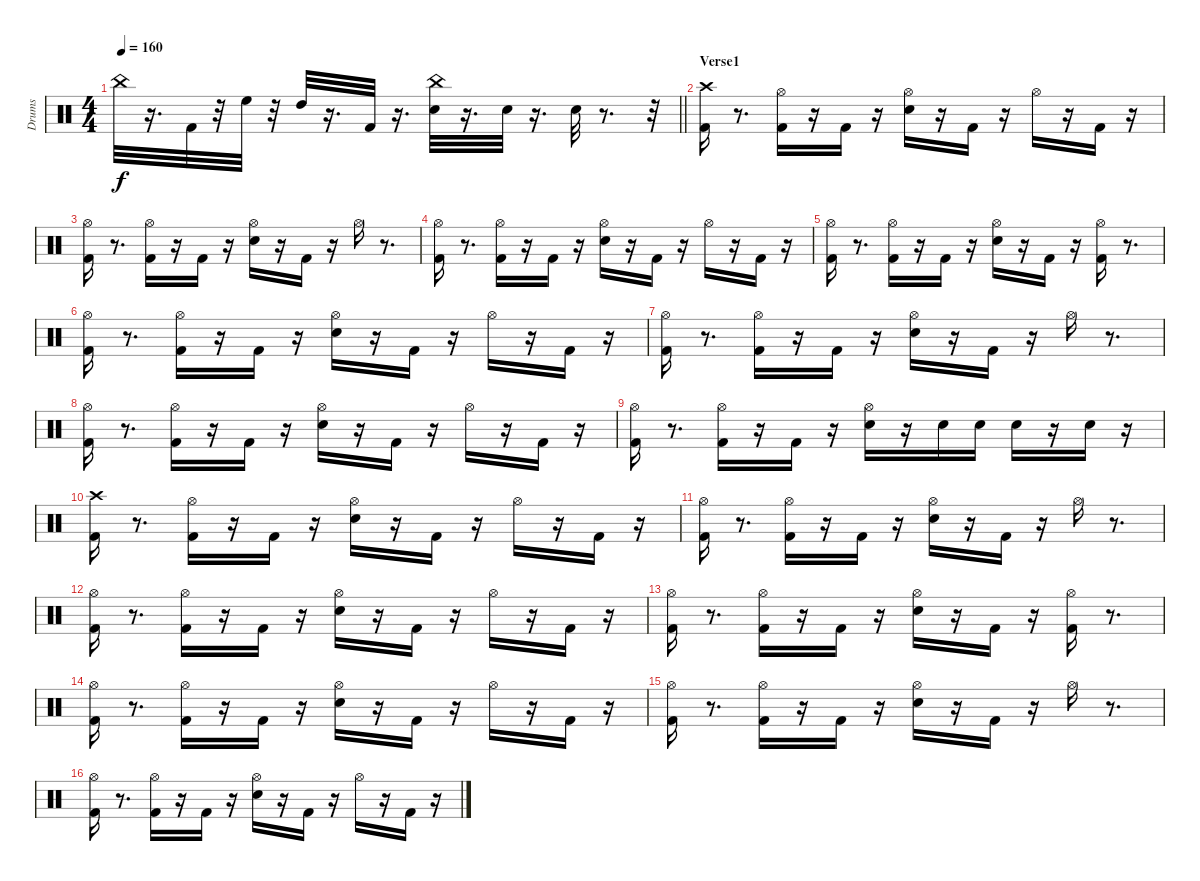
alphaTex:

\track ("Drums" "Drums") {instrument percussion}
\staff {score}
\articulation defaults
\ts (4 4)
\tempo 160
\clef neutral
\barLineRight lightlight
\ks c "China (hit)".32{dy f}
r.16{d} "Kick (hit) 2".32 r.32 "High Floor Tom (hit)".32 r.32 "High Tom (hit)".32 r.16{d} "Kick (hit) 2".32 r.16{d} ("Snare (hit) 2" "China (hit)").32 r.16{d} "Snare (hit) 2".32 r.16{d} "Snare (hit) 2".32 r.8{d} r.32 |
\section ("" "Verse1")
("Kick (hit) 2" "Crash high (hit)").16 r.8{d} ("Kick (hit) 2" "Hi-Hat (open)").16 r.16 "Kick (hit) 2".16 r.16 ("Snare (hit) 2" "Hi-Hat (open)").16 r.16 "Kick (hit) 2".16 r.16 "Hi-Hat (open)".16 r.16 "Kick (hit) 2".16 r.16 |
("Kick (hit) 2" "Hi-Hat (open)").16 r.8{d} ("Kick (hit) 2" "Hi-Hat (open)").16 r.16 "Kick (hit) 2".16 r.16 ("Snare (hit) 2" "Hi-Hat (open)").16 r.16 "Kick (hit) 2".16 r.16 "Hi-Hat (open)".16 r.8{d} |
("Kick (hit) 2" "Hi-Hat (open)").16 r.8{d} ("Kick (hit) 2" "Hi-Hat (open)").16 r.16 "Kick (hit) 2".16 r.16 ("Snare (hit) 2" "Hi-Hat (open)").16 r.16 "Kick (hit) 2".16 r.16 "Hi-Hat (open)".16 r.16 "Kick (hit) 2".16 r.16 |
("Kick (hit) 2" "Hi-Hat (open)").16 r.8{d} ("Kick (hit) 2" "Hi-Hat (open)").16 r.16 "Kick (hit) 2".16 r.16 ("Snare (hit) 2" "Hi-Hat (open)").16 r.16 "Kick (hit) 2".16 r.16 ("Kick (hit) 2" "Hi-Hat (open)").16 r.8{d} |
("Kick (hit) 2" "Hi-Hat (open)").16 r.8{d} ("Kick (hit) 2" "Hi-Hat (open)").16 r.16 "Kick (hit) 2".16 r.16 ("Snare (hit) 2" "Hi-Hat (open)").16 r.16 "Kick (hit) 2".16 r.16 "Hi-Hat (open)".16 r.16 "Kick (hit) 2".16 r.16 |
("Kick (hit) 2" "Hi-Hat (open)").16 r.8{d} ("Kick (hit) 2" "Hi-Hat (open)").16 r.16 "Kick (hit) 2".16 r.16 ("Snare (hit) 2" "Hi-Hat (open)").16 r.16 "Kick (hit) 2".16 r.16 "Hi-Hat (open)".16 r.8{d} |
("Kick (hit) 2" "Hi-Hat (open)").16 r.8{d} ("Kick (hit) 2" "Hi-Hat (open)").16 r.16 "Kick (hit) 2".16 r.16 ("Snare (hit) 2" "Hi-Hat (open)").16 r.16 "Kick (hit) 2".16 r.16 "Hi-Hat (open)".16 r.16 "Kick (hit) 2".16 r.16 |
("Kick (hit) 2" "Hi-Hat (open)").16 r.8{d} ("Kick (hit) 2" "Hi-Hat (open)").16 r.16 "Kick (hit) 2".16 r.16 ("Snare (hit) 2" "Hi-Hat (open)").16 r.16 "Snare (hit) 2".16 "Snare (hit) 2".16 "Snare (hit) 2".16 r.16 "Snare (hit) 2".16 r.16 |
("Kick (hit) 2" "Crash high (hit)").16 r.8{d} ("Kick (hit) 2" "Hi-Hat (open)").16 r.16 "Kick (hit) 2".16 r.16 ("Snare (hit) 2" "Hi-Hat (open)").16 r.16 "Kick (hit) 2".16 r.16 "Hi-Hat (open)".16 r.16 "Kick (hit) 2".16 r.16 |
("Kick (hit) 2" "Hi-Hat (open)").16 r.8{d} ("Kick (hit) 2" "Hi-Hat (open)").16 r.16 "Kick (hit) 2".16 r.16 ("Snare (hit) 2" "Hi-Hat (open)").16 r.16 "Kick (hit) 2".16 r.16 "Hi-Hat (open)".16 r.8{d} |
("Kick (hit) 2" "Hi-Hat (open)").16 r.8{d} ("Kick (hit) 2" "Hi-Hat (open)").16 r.16 "Kick (hit) 2".16 r.16 ("Snare (hit) 2" "Hi-Hat (open)").16 r.16 "Kick (hit) 2".16 r.16 "Hi-Hat (open)".16 r.16 "Kick (hit) 2".16 r.16 |
("Kick (hit) 2" "Hi-Hat (open)").16 r.8{d} ("Kick (hit) 2" "Hi-Hat (open)").16 r.16 "Kick (hit) 2".16 r.16 ("Snare (hit) 2" "Hi-Hat (open)").16 r.16 "Kick (hit) 2".16 r.16 ("Kick (hit) 2" "Hi-Hat (open)").16 r.8{d} |
("Kick (hit) 2" "Hi-Hat (open)").16 r.8{d} ("Kick (hit) 2" "Hi-Hat (open)").16 r.16 "Kick (hit) 2".16 r.16 ("Snare (hit) 2" "Hi-Hat (open)").16 r.16 "Kick (hit) 2".16 r.16 "Hi-Hat (open)".16 r.16 "Kick (hit) 2".16 r.16 |
("Kick (hit) 2" "Hi-Hat (open)").16 r.8{d} ("Kick (hit) 2" "Hi-Hat (open)").16 r.16 "Kick (hit) 2".16 r.16 ("Snare (hit) 2" "Hi-Hat (open)").16 r.16 "Kick (hit) 2".16 r.16 "Hi-Hat (open)".16 r.8{d} |
("Kick (hit) 2" "Hi-Hat (open)").16 r.8{d} ("Kick (hit) 2" "Hi-Hat (open)").16 r.16 "Kick (hit) 2".16 r.16 ("Snare (hit) 2" "Hi-Hat (open)").16 r.16 "Kick (hit) 2".16 r.16 "Hi-Hat (open)".16 r.16 "Kick (hit) 2".16 r.16
